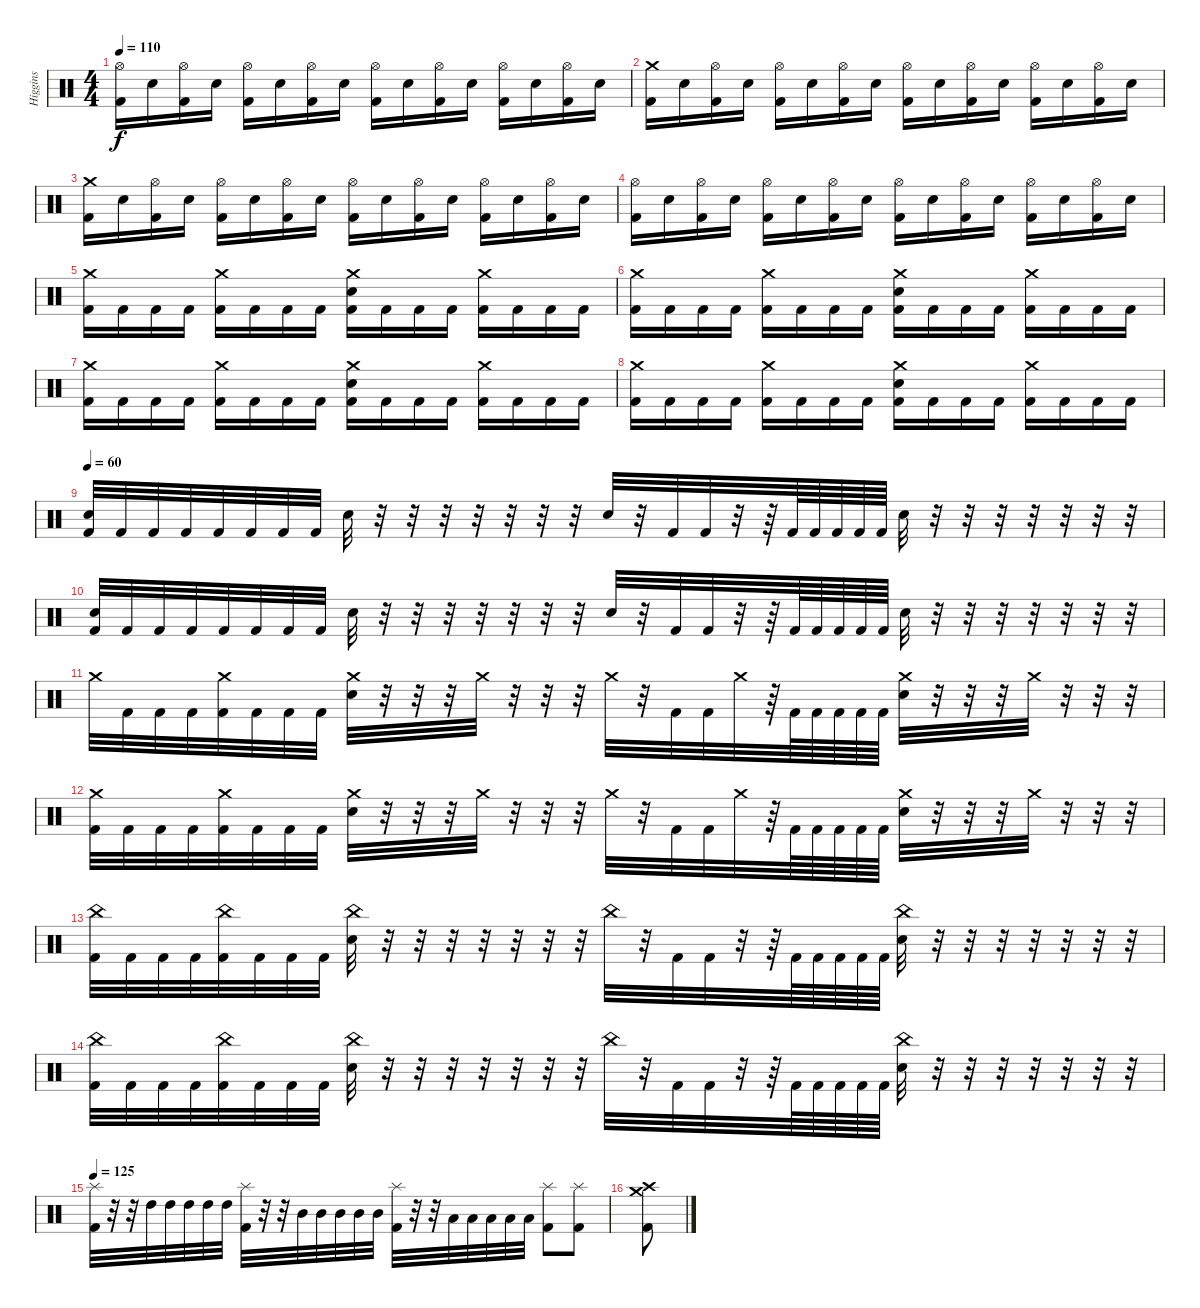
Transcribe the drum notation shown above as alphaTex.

\track ("Higgins" "Higgins") {instrument percussion}
\staff {score}
\articulation defaults
\ts (4 4)
\tempo 110
\clef neutral
\ks c
("Hi-Hat (open)" "Kick (hit) 2").16{dy f} "Snare (hit) 2".16 ("Hi-Hat (open)" "Kick (hit) 2").16 "Snare (hit) 2".16 ("Hi-Hat (open)" "Kick (hit) 2").16 "Snare (hit) 2".16 ("Hi-Hat (open)" "Kick (hit) 2").16 "Snare (hit) 2".16 ("Hi-Hat (open)" "Kick (hit) 2").16 "Snare (hit) 2".16 ("Hi-Hat (open)" "Kick (hit) 2").16 "Snare (hit) 2".16 ("Hi-Hat (open)" "Kick (hit) 2").16 "Snare (hit) 2".16 ("Hi-Hat (open)" "Kick (hit) 2").16 "Snare (hit) 2".16 |
("Crash medium (hit)" "Kick (hit) 2").16 "Snare (hit) 2".16 ("Hi-Hat (open)" "Kick (hit) 2").16 "Snare (hit) 2".16 ("Hi-Hat (open)" "Kick (hit) 2").16 "Snare (hit) 2".16 ("Hi-Hat (open)" "Kick (hit) 2").16 "Snare (hit) 2".16 ("Hi-Hat (open)" "Kick (hit) 2").16 "Snare (hit) 2".16 ("Hi-Hat (open)" "Kick (hit) 2").16 "Snare (hit) 2".16 ("Hi-Hat (open)" "Kick (hit) 2").16 "Snare (hit) 2".16 ("Hi-Hat (open)" "Kick (hit) 2").16 "Snare (hit) 2".16 |
("Crash medium (hit)" "Kick (hit) 2").16 "Snare (hit) 2".16 ("Hi-Hat (open)" "Kick (hit) 2").16 "Snare (hit) 2".16 ("Hi-Hat (open)" "Kick (hit) 2").16 "Snare (hit) 2".16 ("Hi-Hat (open)" "Kick (hit) 2").16 "Snare (hit) 2".16 ("Hi-Hat (open)" "Kick (hit) 2").16 "Snare (hit) 2".16 ("Hi-Hat (open)" "Kick (hit) 2").16 "Snare (hit) 2".16 ("Hi-Hat (open)" "Kick (hit) 2").16 "Snare (hit) 2".16 ("Hi-Hat (open)" "Kick (hit) 2").16 "Snare (hit) 2".16 |
("Hi-Hat (open)" "Kick (hit) 2").16 "Snare (hit) 2".16 ("Hi-Hat (open)" "Kick (hit) 2").16 "Snare (hit) 2".16 ("Hi-Hat (open)" "Kick (hit) 2").16 "Snare (hit) 2".16 ("Hi-Hat (open)" "Kick (hit) 2").16 "Snare (hit) 2".16 ("Hi-Hat (open)" "Kick (hit) 2").16 "Snare (hit) 2".16 ("Hi-Hat (open)" "Kick (hit) 2").16 "Snare (hit) 2".16 ("Hi-Hat (open)" "Kick (hit) 2").16 "Snare (hit) 2".16 ("Hi-Hat (open)" "Kick (hit) 2").16 "Snare (hit) 2".16 |
("Crash medium (hit)" "Kick (hit) 2").16 "Kick (hit) 2".16 "Kick (hit) 2".16 "Kick (hit) 2".16 ("Crash medium (hit)" "Kick (hit) 2").16 "Kick (hit) 2".16 "Kick (hit) 2".16 "Kick (hit) 2".16 ("Crash medium (hit)" "Snare (hit) 2" "Kick (hit) 2").16 "Kick (hit) 2".16 "Kick (hit) 2".16 "Kick (hit) 2".16 ("Crash medium (hit)" "Kick (hit) 2").16 "Kick (hit) 2".16 "Kick (hit) 2".16 "Kick (hit) 2".16 |
("Crash medium (hit)" "Kick (hit) 2").16 "Kick (hit) 2".16 "Kick (hit) 2".16 "Kick (hit) 2".16 ("Crash medium (hit)" "Kick (hit) 2").16 "Kick (hit) 2".16 "Kick (hit) 2".16 "Kick (hit) 2".16 ("Crash medium (hit)" "Snare (hit) 2" "Kick (hit) 2").16 "Kick (hit) 2".16 "Kick (hit) 2".16 "Kick (hit) 2".16 ("Crash medium (hit)" "Kick (hit) 2").16 "Kick (hit) 2".16 "Kick (hit) 2".16 "Kick (hit) 2".16 |
("Crash medium (hit)" "Kick (hit) 2").16 "Kick (hit) 2".16 "Kick (hit) 2".16 "Kick (hit) 2".16 ("Crash medium (hit)" "Kick (hit) 2").16 "Kick (hit) 2".16 "Kick (hit) 2".16 "Kick (hit) 2".16 ("Crash medium (hit)" "Snare (hit) 2" "Kick (hit) 2").16 "Kick (hit) 2".16 "Kick (hit) 2".16 "Kick (hit) 2".16 ("Crash medium (hit)" "Kick (hit) 2").16 "Kick (hit) 2".16 "Kick (hit) 2".16 "Kick (hit) 2".16 |
("Crash medium (hit)" "Kick (hit) 2").16 "Kick (hit) 2".16 "Kick (hit) 2".16 "Kick (hit) 2".16 ("Crash medium (hit)" "Kick (hit) 2").16 "Kick (hit) 2".16 "Kick (hit) 2".16 "Kick (hit) 2".16 ("Crash medium (hit)" "Snare (hit) 2" "Kick (hit) 2").16 "Kick (hit) 2".16 "Kick (hit) 2".16 "Kick (hit) 2".16 ("Crash medium (hit)" "Kick (hit) 2").16 "Kick (hit) 2".16 "Kick (hit) 2".16 "Kick (hit) 2".16 |
\tempo 60
("Snare (hit) 2" "Kick (hit) 2").32 "Kick (hit) 2".32 "Kick (hit) 2".32 "Kick (hit) 2".32 "Kick (hit) 2".32 "Kick (hit) 2".32 "Kick (hit) 2".32 "Kick (hit) 2".32 "Snare (hit) 2".32 r.32 r.32 r.32 r.32 r.32 r.32 r.32 "Snare (hit) 2".32 r.32 "Kick (hit) 2".32 "Kick (hit) 2".32 r.32 r.64 "Kick (hit) 2".64 "Kick (hit) 2".64 "Kick (hit) 2".64 "Kick (hit) 2".64 "Kick (hit) 2".64 "Snare (hit) 2".32 r.32 r.32 r.32 r.32 r.32 r.32 r.32 |
("Snare (hit) 2" "Kick (hit) 2").32 "Kick (hit) 2".32 "Kick (hit) 2".32 "Kick (hit) 2".32 "Kick (hit) 2".32 "Kick (hit) 2".32 "Kick (hit) 2".32 "Kick (hit) 2".32 "Snare (hit) 2".32 r.32 r.32 r.32 r.32 r.32 r.32 r.32 "Snare (hit) 2".32 r.32 "Kick (hit) 2".32 "Kick (hit) 2".32 r.32 r.64 "Kick (hit) 2".64 "Kick (hit) 2".64 "Kick (hit) 2".64 "Kick (hit) 2".64 "Kick (hit) 2".64 "Snare (hit) 2".32 r.32 r.32 r.32 r.32 r.32 r.32 r.32 |
"Crash medium (hit)".32 "Kick (hit) 2".32 "Kick (hit) 2".32 "Kick (hit) 2".32 ("Crash medium (hit)" "Kick (hit) 2").32 "Kick (hit) 2".32 "Kick (hit) 2".32 "Kick (hit) 2".32 ("Crash medium (hit)" "Snare (hit) 2").32 r.32 r.32 r.32 "Crash medium (hit)".32 r.32 r.32 r.32 "Crash medium (hit)".32 r.32 "Kick (hit) 2".32 "Kick (hit) 2".32 "Crash medium (hit)".32 r.64 "Kick (hit) 2".64 "Kick (hit) 2".64 "Kick (hit) 2".64 "Kick (hit) 2".64 "Kick (hit) 2".64 ("Crash medium (hit)" "Snare (hit) 2").32 r.32 r.32 r.32 "Crash medium (hit)".32 r.32 r.32 r.32 |
("Crash medium (hit)" "Kick (hit) 2").32 "Kick (hit) 2".32 "Kick (hit) 2".32 "Kick (hit) 2".32 ("Crash medium (hit)" "Kick (hit) 2").32 "Kick (hit) 2".32 "Kick (hit) 2".32 "Kick (hit) 2".32 ("Crash medium (hit)" "Snare (hit) 2").32 r.32 r.32 r.32 "Crash medium (hit)".32 r.32 r.32 r.32 "Crash medium (hit)".32 r.32 "Kick (hit) 2".32 "Kick (hit) 2".32 "Crash medium (hit)".32 r.64 "Kick (hit) 2".64 "Kick (hit) 2".64 "Kick (hit) 2".64 "Kick (hit) 2".64 "Kick (hit) 2".64 ("Crash medium (hit)" "Snare (hit) 2").32 r.32 r.32 r.32 "Crash medium (hit)".32 r.32 r.32 r.32 |
("China (hit)" "Kick (hit) 2").32 "Kick (hit) 2".32 "Kick (hit) 2".32 "Kick (hit) 2".32 ("China (hit)" "Kick (hit) 2").32 "Kick (hit) 2".32 "Kick (hit) 2".32 "Kick (hit) 2".32 ("China (hit)" "Snare (hit) 2").32 r.32 r.32 r.32 r.32 r.32 r.32 r.32 "China (hit)".32 r.32 "Kick (hit) 2".32 "Kick (hit) 2".32 r.32 r.64 "Kick (hit) 2".64 "Kick (hit) 2".64 "Kick (hit) 2".64 "Kick (hit) 2".64 "Kick (hit) 2".64 ("China (hit)" "Snare (hit) 2").32 r.32 r.32 r.32 r.32 r.32 r.32 r.32 |
("China (hit)" "Kick (hit) 2").32 "Kick (hit) 2".32 "Kick (hit) 2".32 "Kick (hit) 2".32 ("China (hit)" "Kick (hit) 2").32 "Kick (hit) 2".32 "Kick (hit) 2".32 "Kick (hit) 2".32 ("China (hit)" "Snare (hit) 2").32 r.32 r.32 r.32 r.32 r.32 r.32 r.32 "China (hit)".32 r.32 "Kick (hit) 2".32 "Kick (hit) 2".32 r.32 r.64 "Kick (hit) 2".64 "Kick (hit) 2".64 "Kick (hit) 2".64 "Kick (hit) 2".64 "Kick (hit) 2".64 ("China (hit)" "Snare (hit) 2").32 r.32 r.32 r.32 r.32 r.32 r.32 r.32 |
\tempo 125
("Splash (hit)" "Kick (hit) 2").32 r.32 r.32 "High Tom (hit)".32 "High Tom (hit)".32 "High Tom (hit)".32 "High Tom (hit)".32 "High Tom (hit)".32 ("Splash (hit)" "Kick (hit) 2").32 r.32 r.32 "Mid Tom (hit)".32 "Mid Tom (hit)".32 "Mid Tom (hit)".32 "Mid Tom (hit)".32 "Mid Tom (hit)".32 ("Splash (hit)" "Kick (hit) 2").32 r.32 r.32 "Low Tom (hit)".32 "Low Tom (hit)".32 "Low Tom (hit)".32 "Low Tom (hit)".32 "Low Tom (hit)".32 ("Splash (hit)" "Kick (hit) 2").8 ("Splash (hit)" "Kick (hit) 2").8 |
("Crash medium (hit)" "Crash high (hit)" "Kick (hit) 2").8
